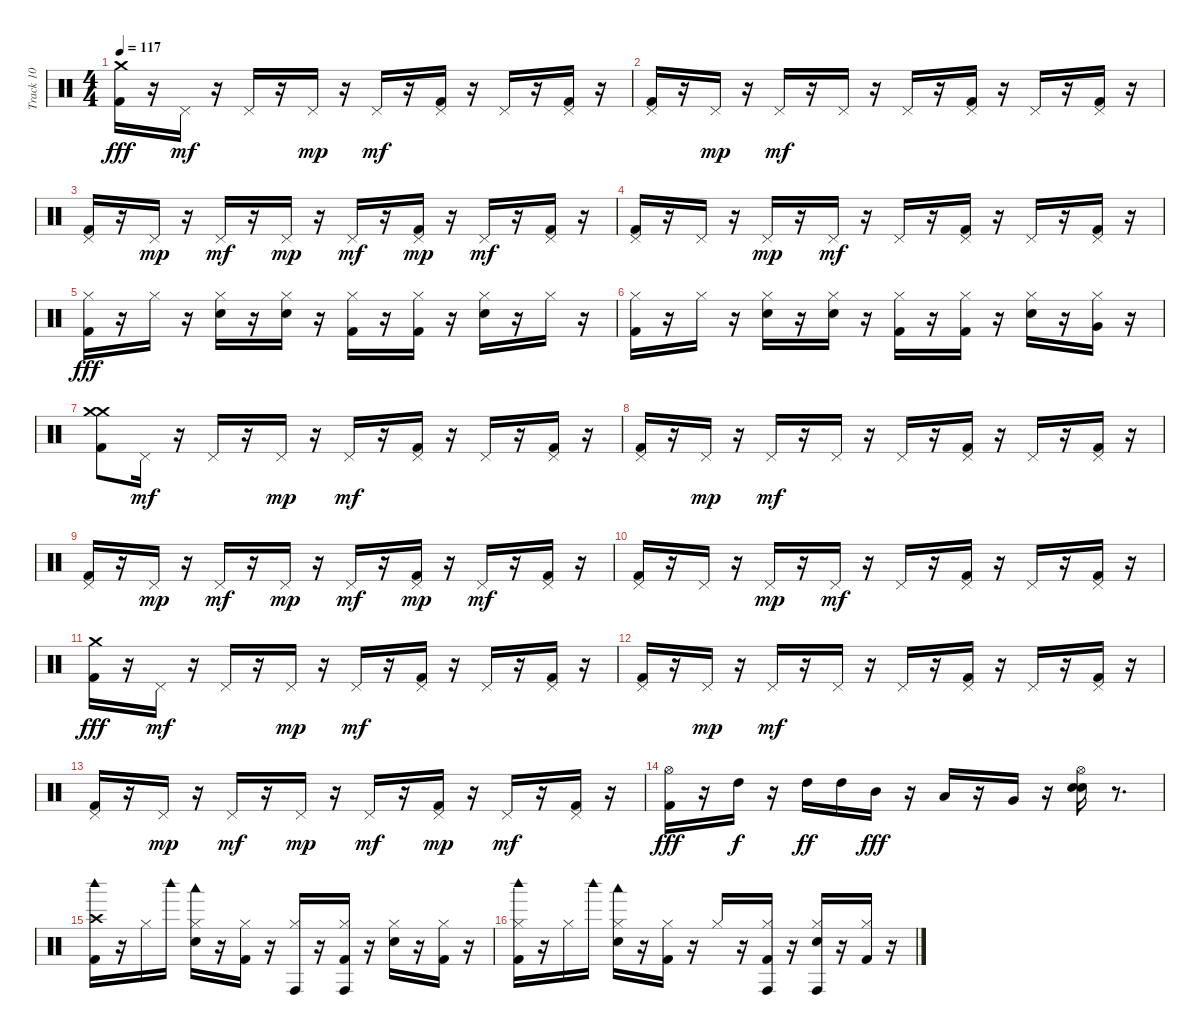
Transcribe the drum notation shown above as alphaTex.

\track ("Track 10" "Track 10") {instrument percussion}
\staff {score}
\articulation defaults
\ts (4 4)
\tempo 117
\clef neutral
\ks c
("Crash medium (hit)" "Kick (hit) 2").16{dy fff} r.16 "Pedal Hi-Hat (hit)".16{dy mf} r.16 "Pedal Hi-Hat (hit)".16 r.16 "Pedal Hi-Hat (hit)".16{dy mp} r.16 "Pedal Hi-Hat (hit)".16{dy mf} r.16 ("Kick (hit) 2" "Pedal Hi-Hat (hit)").16 r.16 "Pedal Hi-Hat (hit)".16 r.16 ("Kick (hit) 2" "Pedal Hi-Hat (hit)").16 r.16 |
("Kick (hit) 2" "Pedal Hi-Hat (hit)").16 r.16 "Pedal Hi-Hat (hit)".16{dy mp} r.16 "Pedal Hi-Hat (hit)".16{dy mf} r.16 "Pedal Hi-Hat (hit)".16 r.16 "Pedal Hi-Hat (hit)".16 r.16 ("Kick (hit) 2" "Pedal Hi-Hat (hit)").16 r.16 "Pedal Hi-Hat (hit)".16 r.16 ("Kick (hit) 2" "Pedal Hi-Hat (hit)").16 r.16 |
("Kick (hit) 2" "Pedal Hi-Hat (hit)").16 r.16 "Pedal Hi-Hat (hit)".16{dy mp} r.16 "Pedal Hi-Hat (hit)".16{dy mf} r.16 "Pedal Hi-Hat (hit)".16{dy mp} r.16 "Pedal Hi-Hat (hit)".16{dy mf} r.16 ("Kick (hit) 2" "Pedal Hi-Hat (hit)").16{dy mp} r.16 "Pedal Hi-Hat (hit)".16{dy mf} r.16 ("Kick (hit) 2" "Pedal Hi-Hat (hit)").16 r.16 |
("Kick (hit) 2" "Pedal Hi-Hat (hit)").16 r.16 "Pedal Hi-Hat (hit)".16 r.16 "Pedal Hi-Hat (hit)".16{dy mp} r.16 "Pedal Hi-Hat (hit)".16{dy mf} r.16 "Pedal Hi-Hat (hit)".16 r.16 ("Kick (hit) 2" "Pedal Hi-Hat (hit)").16 r.16 "Pedal Hi-Hat (hit)".16 r.16 ("Kick (hit) 2" "Pedal Hi-Hat (hit)").16 r.16 |
("Hi-Hat (closed)" "Kick (hit) 2").16{dy fff} r.16 "Hi-Hat (closed)".16 r.16 ("Hi-Hat (closed)" "Snare (hit) 2").16 r.16 ("Hi-Hat (closed)" "Snare (hit) 2").16 r.16 ("Hi-Hat (closed)" "Kick (hit) 2").16 r.16 ("Hi-Hat (closed)" "Kick (hit) 2").16 r.16 ("Hi-Hat (closed)" "Snare (hit) 2").16 r.16 "Hi-Hat (closed)".16 r.16 |
("Hi-Hat (closed)" "Kick (hit) 2").16 r.16 "Hi-Hat (closed)".16 r.16 ("Hi-Hat (closed)" "Snare (hit) 2").16 r.16 ("Hi-Hat (closed)" "Snare (hit) 2").16 r.16 ("Hi-Hat (closed)" "Kick (hit) 2").16 r.16 ("Hi-Hat (closed)" "Kick (hit) 2").16 r.16 ("Hi-Hat (closed)" "Snare (hit) 2").16 r.16 ("Hi-Hat (closed)" "Very Low Tom (hit)").16 r.16 |
("Crash medium (hit)" "Crash medium (hit)" "Kick (hit) 2").8 "Pedal Hi-Hat (hit)".16{dy mf} r.16 "Pedal Hi-Hat (hit)".16 r.16 "Pedal Hi-Hat (hit)".16{dy mp} r.16 "Pedal Hi-Hat (hit)".16{dy mf} r.16 ("Kick (hit) 2" "Pedal Hi-Hat (hit)").16 r.16 "Pedal Hi-Hat (hit)".16 r.16 ("Kick (hit) 2" "Pedal Hi-Hat (hit)").16 r.16 |
("Kick (hit) 2" "Pedal Hi-Hat (hit)").16 r.16 "Pedal Hi-Hat (hit)".16{dy mp} r.16 "Pedal Hi-Hat (hit)".16{dy mf} r.16 "Pedal Hi-Hat (hit)".16 r.16 "Pedal Hi-Hat (hit)".16 r.16 ("Kick (hit) 2" "Pedal Hi-Hat (hit)").16 r.16 "Pedal Hi-Hat (hit)".16 r.16 ("Kick (hit) 2" "Pedal Hi-Hat (hit)").16 r.16 |
("Kick (hit) 2" "Pedal Hi-Hat (hit)").16 r.16 "Pedal Hi-Hat (hit)".16{dy mp} r.16 "Pedal Hi-Hat (hit)".16{dy mf} r.16 "Pedal Hi-Hat (hit)".16{dy mp} r.16 "Pedal Hi-Hat (hit)".16{dy mf} r.16 ("Kick (hit) 2" "Pedal Hi-Hat (hit)").16{dy mp} r.16 "Pedal Hi-Hat (hit)".16{dy mf} r.16 ("Kick (hit) 2" "Pedal Hi-Hat (hit)").16 r.16 |
("Kick (hit) 2" "Pedal Hi-Hat (hit)").16 r.16 "Pedal Hi-Hat (hit)".16 r.16 "Pedal Hi-Hat (hit)".16{dy mp} r.16 "Pedal Hi-Hat (hit)".16{dy mf} r.16 "Pedal Hi-Hat (hit)".16 r.16 ("Kick (hit) 2" "Pedal Hi-Hat (hit)").16 r.16 "Pedal Hi-Hat (hit)".16 r.16 ("Kick (hit) 2" "Pedal Hi-Hat (hit)").16 r.16 |
("Crash medium (hit)" "Kick (hit) 2").16{dy fff} r.16 "Pedal Hi-Hat (hit)".16{dy mf} r.16 "Pedal Hi-Hat (hit)".16 r.16 "Pedal Hi-Hat (hit)".16{dy mp} r.16 "Pedal Hi-Hat (hit)".16{dy mf} r.16 ("Kick (hit) 2" "Pedal Hi-Hat (hit)").16 r.16 "Pedal Hi-Hat (hit)".16 r.16 ("Kick (hit) 2" "Pedal Hi-Hat (hit)").16 r.16 |
("Kick (hit) 2" "Pedal Hi-Hat (hit)").16 r.16 "Pedal Hi-Hat (hit)".16{dy mp} r.16 "Pedal Hi-Hat (hit)".16{dy mf} r.16 "Pedal Hi-Hat (hit)".16 r.16 "Pedal Hi-Hat (hit)".16 r.16 ("Kick (hit) 2" "Pedal Hi-Hat (hit)").16 r.16 "Pedal Hi-Hat (hit)".16 r.16 ("Kick (hit) 2" "Pedal Hi-Hat (hit)").16 r.16 |
("Kick (hit) 2" "Pedal Hi-Hat (hit)").16 r.16 "Pedal Hi-Hat (hit)".16{dy mp} r.16 "Pedal Hi-Hat (hit)".16{dy mf} r.16 "Pedal Hi-Hat (hit)".16{dy mp} r.16 "Pedal Hi-Hat (hit)".16{dy mf} r.16 ("Kick (hit) 2" "Pedal Hi-Hat (hit)").16{dy mp} r.16 "Pedal Hi-Hat (hit)".16{dy mf} r.16 ("Kick (hit) 2" "Pedal Hi-Hat (hit)").16 r.16 |
("Hi-Hat (open)" "Kick (hit) 2").16{dy fff} r.16 "High Tom (hit)".16{dy f} r.16 "High Tom (hit)".16{dy ff} "High Tom (hit)".16 "Mid Tom (hit)".16{dy fff} r.16 "Low Tom (hit)".16 r.16 "Very Low Tom (hit)".16 r.16 ("Electric Snare (hit)" "Snare (hit) 2" "Hi-Hat (open)").16 r.8{d} |
("Kick (hit) 2" "Crash high (hit)" "Woodblock high (hit)").16 r.16 "Hi-Hat (closed)".16 "Woodblock high (hit)".16 ("Snare (hit) 2" "Hi-Hat (closed)" "Woodblock low (hit)").16 r.16 ("Kick (hit) 2" "Hi-Hat (closed)").16 r.16 ("Hi-Hat (closed)" "Conga high (hit)").16 r.16 ("Kick (hit) 2" "Hi-Hat (closed)" "Conga high (hit)").16 r.16 ("Snare (hit) 2" "Hi-Hat (closed)").16 r.16 ("Kick (hit) 2" "Hi-Hat (closed)").16 r.16 |
("Kick (hit) 2" "Hi-Hat (closed)" "Woodblock high (hit)").16 r.16 "Hi-Hat (closed)".16 "Woodblock high (hit)".16 ("Snare (hit) 2" "Hi-Hat (closed)" "Woodblock low (hit)").16 r.16 ("Kick (hit) 2" "Hi-Hat (closed)").16 r.16 "Hi-Hat (closed)".16 r.16 ("Kick (hit) 2" "Hi-Hat (closed)" "Conga high (hit)").16 r.16 ("Snare (hit) 2" "Hi-Hat (closed)" "Conga high (hit)").16 r.16 ("Kick (hit) 2" "Hi-Hat (closed)").16 r.16
